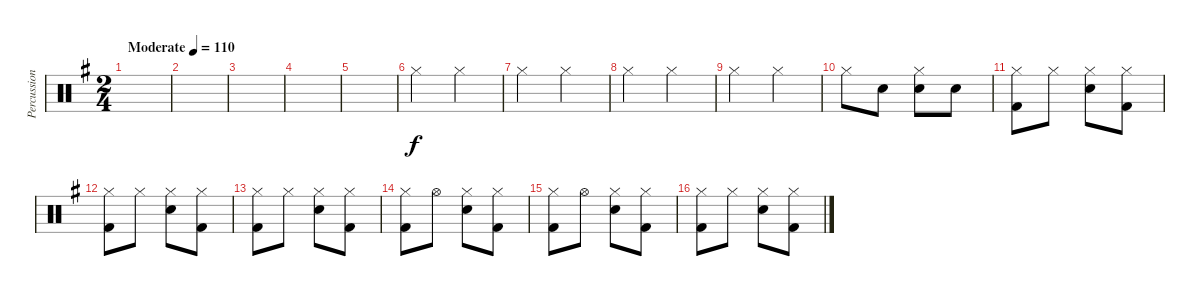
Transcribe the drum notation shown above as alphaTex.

\track ("Percussion" "Percussion") {instrument percussion}
\staff {score}
\articulation defaults
\ts (2 4)
\tempo (110 "Moderate")
\clef neutral
\ks g
|
|
|
|
|
"Hi-Hat (closed)".4 "Hi-Hat (closed)".4 |
"Hi-Hat (closed)".4 "Hi-Hat (closed)".4 |
"Hi-Hat (closed)".4 "Hi-Hat (closed)".4 |
"Hi-Hat (closed)".4 "Hi-Hat (closed)".4 |
"Hi-Hat (closed)".8 "Electric Snare (hit)".8 ("Hi-Hat (closed)" "Electric Snare (hit)").8 "Electric Snare (hit)".8 |
("Hi-Hat (closed)" "Kick (hit) 2").8 "Hi-Hat (closed)".8 ("Hi-Hat (closed)" "Electric Snare (hit)").8 ("Hi-Hat (closed)" "Kick (hit) 2").8 |
("Hi-Hat (closed)" "Kick (hit) 2").8 "Hi-Hat (closed)".8 ("Hi-Hat (closed)" "Electric Snare (hit)").8 ("Hi-Hat (closed)" "Kick (hit) 2").8 |
("Hi-Hat (closed)" "Kick (hit) 2").8 "Hi-Hat (closed)".8 ("Hi-Hat (closed)" "Electric Snare (hit)").8 ("Hi-Hat (closed)" "Kick (hit) 2").8 |
("Hi-Hat (closed)" "Kick (hit) 2").8 "Hi-Hat (open)".8 ("Hi-Hat (closed)" "Electric Snare (hit)").8 ("Hi-Hat (closed)" "Kick (hit) 2").8 |
("Hi-Hat (closed)" "Kick (hit) 2").8 "Hi-Hat (open)".8 ("Hi-Hat (closed)" "Electric Snare (hit)").8 ("Hi-Hat (closed)" "Kick (hit) 2").8 |
("Hi-Hat (closed)" "Kick (hit) 2").8 "Hi-Hat (closed)".8 ("Hi-Hat (closed)" "Electric Snare (hit)").8 ("Hi-Hat (closed)" "Kick (hit) 2").8
